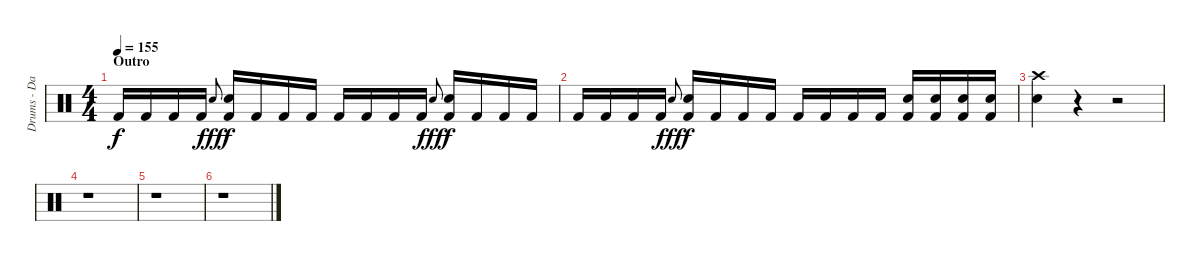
\track ("Drums - Daniel Adair" "Drums - Da") {instrument percussion bank 1}
\staff {score}
\articulation defaults
\ts (4 4)
\section ("" "Outro")
\tempo 155
\clef neutral
\ks c "Kick (hit) 2".16{dy f} "Kick (hit) 2".16 "Kick (hit) 2".16 "Kick (hit) 2".16 "Snare (hit) 2"{h}.8{gr onbeat dy fff}
("Snare (hit) 2" "Kick (hit) 2").16{dy f} "Kick (hit) 2".16 "Kick (hit) 2".16 "Kick (hit) 2".16 "Kick (hit) 2".16 "Kick (hit) 2".16 "Kick (hit) 2".16 "Kick (hit) 2".16 "Snare (hit) 2"{h}.8{gr onbeat dy fff} ("Snare (hit) 2" "Kick (hit) 2").16{dy f} "Kick (hit) 2".16 "Kick (hit) 2".16 "Kick (hit) 2".16 |
"Kick (hit) 2".16 "Kick (hit) 2".16 "Kick (hit) 2".16 "Kick (hit) 2".16 "Snare (hit) 2"{h}.8{gr onbeat dy fff} ("Snare (hit) 2" "Kick (hit) 2").16{dy f} "Kick (hit) 2".16 "Kick (hit) 2".16 "Kick (hit) 2".16 "Kick (hit) 2".16 "Kick (hit) 2".16 "Kick (hit) 2".16 "Kick (hit) 2".16 ("Snare (hit) 2" "Kick (hit) 2").16 ("Snare (hit) 2" "Kick (hit) 2").16 ("Snare (hit) 2" "Kick (hit) 2").16 ("Snare (hit) 2" "Kick (hit) 2").16 |
("Crash high (hit)" "Snare (hit) 2").4 r.4 r.2 |
r.1 |
r.1 |
r.1
